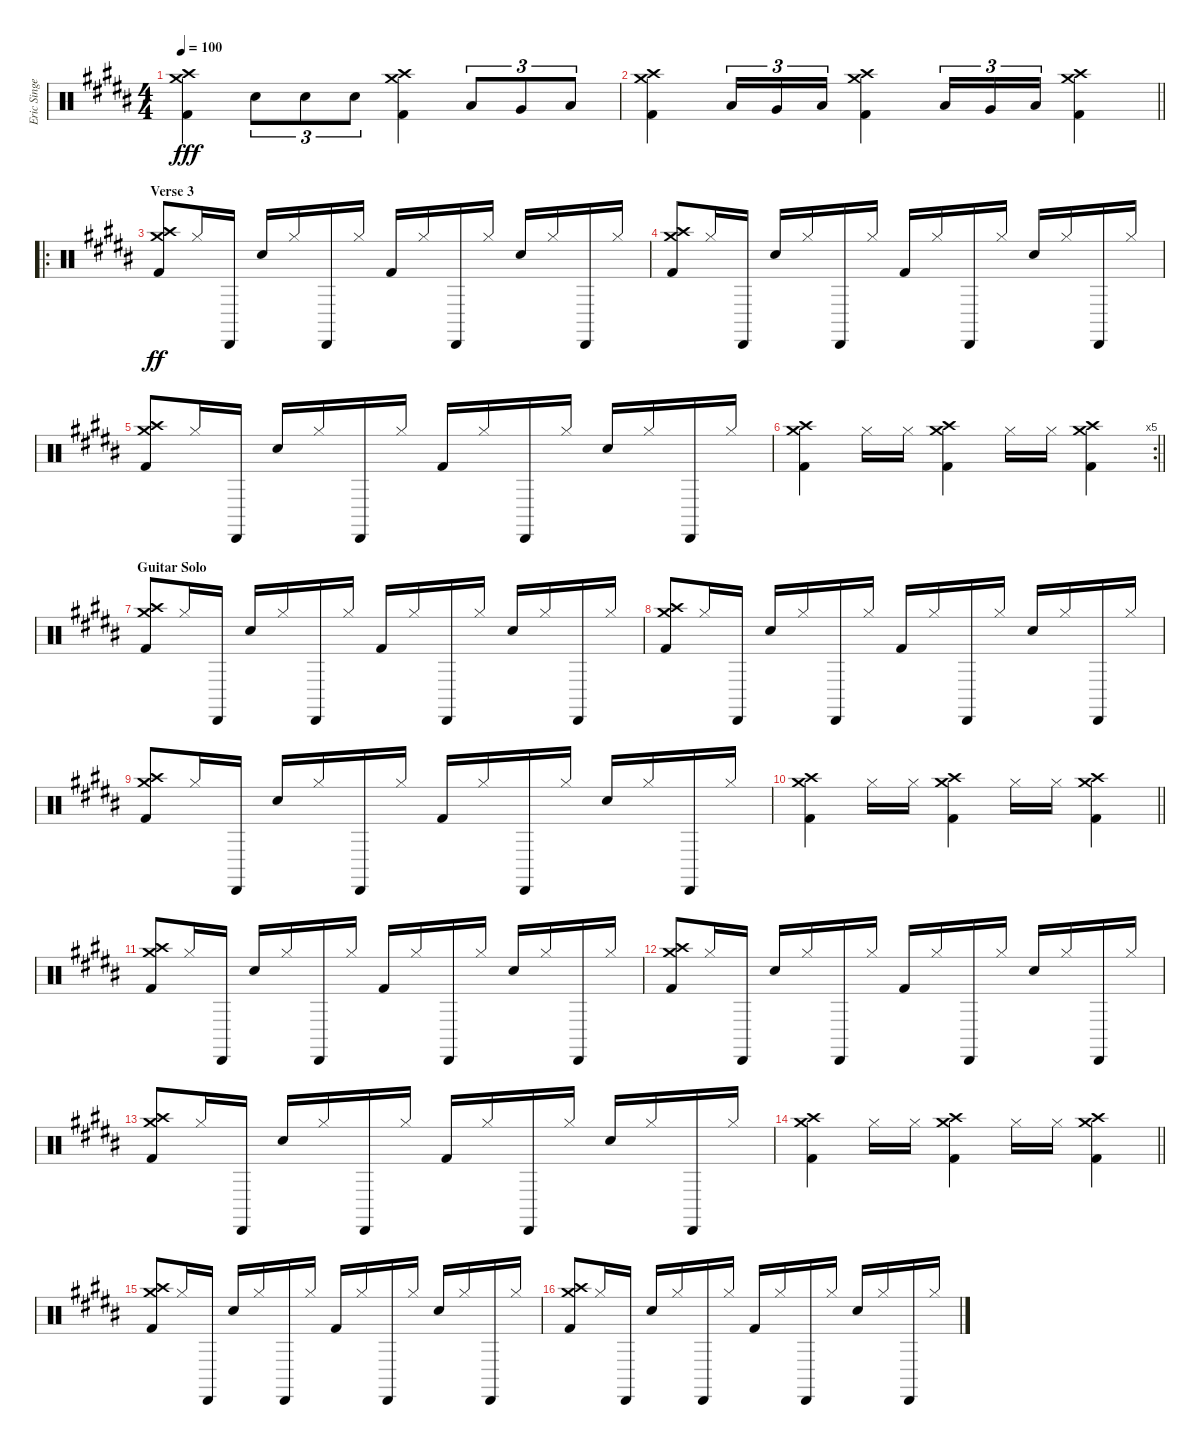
\track ("Eric Singer" "Eric Singe") {instrument percussion}
\staff {score}
\articulation defaults
\ts (4 4)
\tempo 100
\clef neutral
\ks b
("Crash medium (hit)" "Crash high (hit)" "Kick (hit) 2").4{dy fff} "Snare (hit) 2".8{tu (3 2)} "Snare (hit) 2".8{tu (3 2)} "Snare (hit) 2".8{tu (3 2)} ("Crash medium (hit)" "Crash high (hit)" "Kick (hit) 2").4 "Low Tom (hit)".8{tu (3 2)} "Very Low Tom (hit)".8{tu (3 2)} "Low Floor Tom (hit)".8{tu (3 2)} |
\barLineRight lightlight
("Crash medium (hit)" "Crash high (hit)" "Kick (hit) 2").4 "Low Tom (hit)".16{tu (3 2)} "Very Low Tom (hit)".16{tu (3 2)} "Low Floor Tom (hit)".16{tu (3 2)} ("Crash medium (hit)" "Crash high (hit)" "Kick (hit) 2").4 "Low Tom (hit)".16{tu (3 2)} "Very Low Tom (hit)".16{tu (3 2)} "Low Floor Tom (hit)".16{tu (3 2)} ("Crash medium (hit)" "Crash high (hit)" "Kick (hit) 2").4 |
\ro
\section ("" "Verse 3")
("Crash medium (hit)" "Crash high (hit)" "Kick (hit) 2").8{dy ff} "Hi-Hat (closed)".16 "Cabasa (hit)".16 "Snare (hit) 2".16 "Hi-Hat (closed)".16 "Cabasa (hit)".16 "Hi-Hat (closed)".16 "Kick (hit) 2".16 "Hi-Hat (closed)".16 "Cabasa (hit)".16 "Hi-Hat (closed)".16 "Snare (hit) 2".16 "Hi-Hat (closed)".16 "Cabasa (hit)".16 "Hi-Hat (closed)".16 |
("Crash medium (hit)" "Crash high (hit)" "Kick (hit) 2").8 "Hi-Hat (closed)".16 "Cabasa (hit)".16 "Snare (hit) 2".16 "Hi-Hat (closed)".16 "Cabasa (hit)".16 "Hi-Hat (closed)".16 "Kick (hit) 2".16 "Hi-Hat (closed)".16 "Cabasa (hit)".16 "Hi-Hat (closed)".16 "Snare (hit) 2".16 "Hi-Hat (closed)".16 "Cabasa (hit)".16 "Hi-Hat (closed)".16 |
("Crash medium (hit)" "Crash high (hit)" "Kick (hit) 2").8 "Hi-Hat (closed)".16 "Cabasa (hit)".16 "Snare (hit) 2".16 "Hi-Hat (closed)".16 "Cabasa (hit)".16 "Hi-Hat (closed)".16 "Kick (hit) 2".16 "Hi-Hat (closed)".16 "Cabasa (hit)".16 "Hi-Hat (closed)".16 "Snare (hit) 2".16 "Hi-Hat (closed)".16 "Cabasa (hit)".16 "Hi-Hat (closed)".16 |
\rc 5
\barLineRight lightlight
("Crash medium (hit)" "Crash high (hit)" "Kick (hit) 2").4 "Hi-Hat (closed)".16 "Hi-Hat (closed)".16 ("Crash medium (hit)" "Crash high (hit)" "Kick (hit) 2").4 "Hi-Hat (closed)".16 "Hi-Hat (closed)".16 ("Crash medium (hit)" "Crash high (hit)" "Kick (hit) 2").4 |
\section ("" "Guitar Solo")
("Crash medium (hit)" "Crash high (hit)" "Kick (hit) 2").8 "Hi-Hat (closed)".16 "Cabasa (hit)".16 "Snare (hit) 2".16 "Hi-Hat (closed)".16 "Cabasa (hit)".16 "Hi-Hat (closed)".16 "Kick (hit) 2".16 "Hi-Hat (closed)".16 "Cabasa (hit)".16 "Hi-Hat (closed)".16 "Snare (hit) 2".16 "Hi-Hat (closed)".16 "Cabasa (hit)".16 "Hi-Hat (closed)".16 |
("Crash medium (hit)" "Crash high (hit)" "Kick (hit) 2").8 "Hi-Hat (closed)".16 "Cabasa (hit)".16 "Snare (hit) 2".16 "Hi-Hat (closed)".16 "Cabasa (hit)".16 "Hi-Hat (closed)".16 "Kick (hit) 2".16 "Hi-Hat (closed)".16 "Cabasa (hit)".16 "Hi-Hat (closed)".16 "Snare (hit) 2".16 "Hi-Hat (closed)".16 "Cabasa (hit)".16 "Hi-Hat (closed)".16 |
("Crash medium (hit)" "Crash high (hit)" "Kick (hit) 2").8 "Hi-Hat (closed)".16 "Cabasa (hit)".16 "Snare (hit) 2".16 "Hi-Hat (closed)".16 "Cabasa (hit)".16 "Hi-Hat (closed)".16 "Kick (hit) 2".16 "Hi-Hat (closed)".16 "Cabasa (hit)".16 "Hi-Hat (closed)".16 "Snare (hit) 2".16 "Hi-Hat (closed)".16 "Cabasa (hit)".16 "Hi-Hat (closed)".16 |
\barLineRight lightlight
("Crash medium (hit)" "Crash high (hit)" "Kick (hit) 2").4 "Hi-Hat (closed)".16 "Hi-Hat (closed)".16 ("Crash medium (hit)" "Crash high (hit)" "Kick (hit) 2").4 "Hi-Hat (closed)".16 "Hi-Hat (closed)".16 ("Crash medium (hit)" "Crash high (hit)" "Kick (hit) 2").4 |
("Crash medium (hit)" "Crash high (hit)" "Kick (hit) 2").8 "Hi-Hat (closed)".16 "Cabasa (hit)".16 "Snare (hit) 2".16 "Hi-Hat (closed)".16 "Cabasa (hit)".16 "Hi-Hat (closed)".16 "Kick (hit) 2".16 "Hi-Hat (closed)".16 "Cabasa (hit)".16 "Hi-Hat (closed)".16 "Snare (hit) 2".16 "Hi-Hat (closed)".16 "Cabasa (hit)".16 "Hi-Hat (closed)".16 |
("Crash medium (hit)" "Crash high (hit)" "Kick (hit) 2").8 "Hi-Hat (closed)".16 "Cabasa (hit)".16 "Snare (hit) 2".16 "Hi-Hat (closed)".16 "Cabasa (hit)".16 "Hi-Hat (closed)".16 "Kick (hit) 2".16 "Hi-Hat (closed)".16 "Cabasa (hit)".16 "Hi-Hat (closed)".16 "Snare (hit) 2".16 "Hi-Hat (closed)".16 "Cabasa (hit)".16 "Hi-Hat (closed)".16 |
("Crash medium (hit)" "Crash high (hit)" "Kick (hit) 2").8 "Hi-Hat (closed)".16 "Cabasa (hit)".16 "Snare (hit) 2".16 "Hi-Hat (closed)".16 "Cabasa (hit)".16 "Hi-Hat (closed)".16 "Kick (hit) 2".16 "Hi-Hat (closed)".16 "Cabasa (hit)".16 "Hi-Hat (closed)".16 "Snare (hit) 2".16 "Hi-Hat (closed)".16 "Cabasa (hit)".16 "Hi-Hat (closed)".16 |
\barLineRight lightlight
("Crash medium (hit)" "Crash high (hit)" "Kick (hit) 2").4 "Hi-Hat (closed)".16 "Hi-Hat (closed)".16 ("Crash medium (hit)" "Crash high (hit)" "Kick (hit) 2").4 "Hi-Hat (closed)".16 "Hi-Hat (closed)".16 ("Crash medium (hit)" "Crash high (hit)" "Kick (hit) 2").4 |
("Crash medium (hit)" "Crash high (hit)" "Kick (hit) 2").8 "Hi-Hat (closed)".16 "Cabasa (hit)".16 "Snare (hit) 2".16 "Hi-Hat (closed)".16 "Cabasa (hit)".16 "Hi-Hat (closed)".16 "Kick (hit) 2".16 "Hi-Hat (closed)".16 "Cabasa (hit)".16 "Hi-Hat (closed)".16 "Snare (hit) 2".16 "Hi-Hat (closed)".16 "Cabasa (hit)".16 "Hi-Hat (closed)".16 |
("Crash medium (hit)" "Crash high (hit)" "Kick (hit) 2").8 "Hi-Hat (closed)".16 "Cabasa (hit)".16 "Snare (hit) 2".16 "Hi-Hat (closed)".16 "Cabasa (hit)".16 "Hi-Hat (closed)".16 "Kick (hit) 2".16 "Hi-Hat (closed)".16 "Cabasa (hit)".16 "Hi-Hat (closed)".16 "Snare (hit) 2".16 "Hi-Hat (closed)".16 "Cabasa (hit)".16 "Hi-Hat (closed)".16
